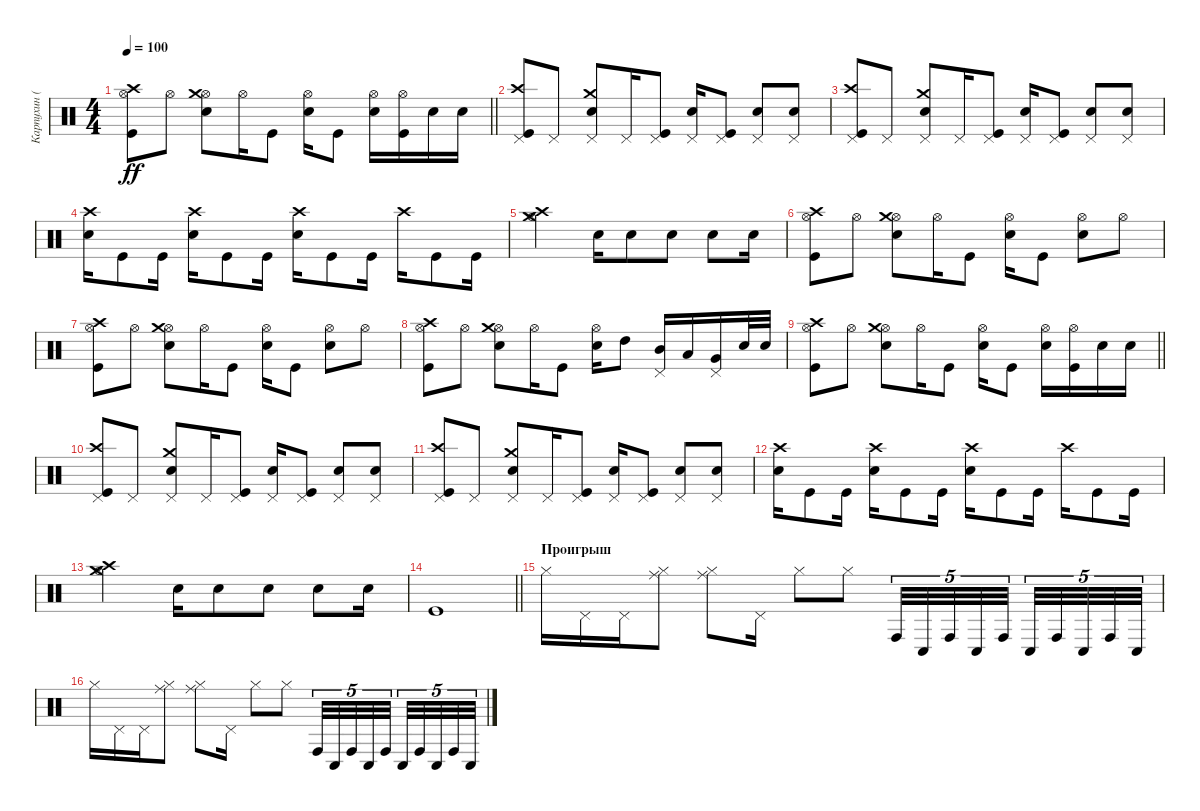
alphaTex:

\track ("Карпухин (ударные)" "Карпухин (") {instrument percussion}
\staff {score}
\articulation defaults
\ts (4 4)
\tempo 100
\clef neutral
\barLineRight lightlight
\ks c
("Hi-Hat (open)" "Kick (hit)" "Crash high (hit)").8{dy ff} "Hi-Hat (open)".8 ("Hi-Hat (open)" "Snare (hit) 2" "Crash medium (hit)").8 "Hi-Hat (open)".16 "Kick (hit)".8 ("Hi-Hat (open)" "Snare (hit) 2").16 "Kick (hit)".8 ("Hi-Hat (open)" "Snare (hit) 2").16 ("Hi-Hat (open)" "Kick (hit)").16 "Snare (hit) 2".16 "Snare (hit) 2".16 |
("Pedal Hi-Hat (hit)" "Kick (hit)" "Crash high (hit)").8 "Pedal Hi-Hat (hit)".8 ("Pedal Hi-Hat (hit)" "Snare (hit) 2" "Crash medium (hit)").8 "Pedal Hi-Hat (hit)".16 ("Pedal Hi-Hat (hit)" "Kick (hit)").8 ("Pedal Hi-Hat (hit)" "Snare (hit) 2").16 ("Pedal Hi-Hat (hit)" "Kick (hit)").8 ("Pedal Hi-Hat (hit)" "Snare (hit) 2").8 ("Pedal Hi-Hat (hit)" "Snare (hit) 2").8 |
("Pedal Hi-Hat (hit)" "Kick (hit)" "Crash high (hit)").8 "Pedal Hi-Hat (hit)".8 ("Pedal Hi-Hat (hit)" "Snare (hit) 2" "Crash medium (hit)").8 "Pedal Hi-Hat (hit)".16 ("Pedal Hi-Hat (hit)" "Kick (hit)").8 ("Pedal Hi-Hat (hit)" "Snare (hit) 2").16 ("Pedal Hi-Hat (hit)" "Kick (hit)").8 ("Pedal Hi-Hat (hit)" "Snare (hit) 2").8 ("Pedal Hi-Hat (hit)" "Snare (hit) 2").8 |
("Snare (hit) 2" "Crash high (hit)").16 "Kick (hit)".8 "Kick (hit)".16 ("Snare (hit) 2" "Crash high (hit)").16 "Kick (hit)".8 "Kick (hit)".16 ("Snare (hit) 2" "Crash high (hit)").16 "Kick (hit)".8 "Kick (hit)".16 "Crash high (hit)".16 "Kick (hit)".8 "Kick (hit)".16 |
("Crash high (hit)" "Crash medium (hit)" "Hi-Hat (open)").2 "Snare (hit) 2".16 "Snare (hit) 2".8 "Snare (hit) 2".8 "Snare (hit) 2".8 "Snare (hit) 2".16 |
("Hi-Hat (open)" "Kick (hit)" "Crash high (hit)").8 "Hi-Hat (open)".8 ("Hi-Hat (open)" "Snare (hit) 2" "Crash medium (hit)").8 "Hi-Hat (open)".16 "Kick (hit)".8 ("Hi-Hat (open)" "Snare (hit) 2").16 "Kick (hit)".8 ("Hi-Hat (open)" "Snare (hit) 2").8 "Hi-Hat (open)".8 |
("Hi-Hat (open)" "Kick (hit)" "Crash high (hit)").8 "Hi-Hat (open)".8 ("Hi-Hat (open)" "Snare (hit) 2" "Crash medium (hit)").8 "Hi-Hat (open)".16 "Kick (hit)".8 ("Hi-Hat (open)" "Snare (hit) 2").16 "Kick (hit)".8 ("Hi-Hat (open)" "Snare (hit) 2").8 "Hi-Hat (open)".8 |
("Hi-Hat (open)" "Kick (hit)" "Crash high (hit)").8 "Hi-Hat (open)".8 ("Hi-Hat (open)" "Snare (hit) 2" "Crash medium (hit)").8 "Hi-Hat (open)".16 "Kick (hit)".8 ("Hi-Hat (open)" "Snare (hit) 2").16 "High Tom (hit)".8 ("Pedal Hi-Hat (hit)" "Mid Tom (hit)").16 "Low Tom (hit)".16 ("Pedal Hi-Hat (hit)" "Very Low Tom (hit)").16 "Electric Snare (hit)".32 "Snare (hit) 2".32 |
\barLineRight lightlight
("Hi-Hat (open)" "Kick (hit)" "Crash high (hit)").8 "Hi-Hat (open)".8 ("Hi-Hat (open)" "Snare (hit) 2" "Crash medium (hit)").8 "Hi-Hat (open)".16 "Kick (hit)".8 ("Hi-Hat (open)" "Snare (hit) 2").16 "Kick (hit)".8 ("Hi-Hat (open)" "Snare (hit) 2").16 ("Hi-Hat (open)" "Kick (hit)").16 "Snare (hit) 2".16 "Snare (hit) 2".16 |
("Pedal Hi-Hat (hit)" "Kick (hit)" "Crash high (hit)").8 "Pedal Hi-Hat (hit)".8 ("Pedal Hi-Hat (hit)" "Snare (hit) 2" "Crash medium (hit)").8 "Pedal Hi-Hat (hit)".16 ("Pedal Hi-Hat (hit)" "Kick (hit)").8 ("Pedal Hi-Hat (hit)" "Snare (hit) 2").16 ("Pedal Hi-Hat (hit)" "Kick (hit)").8 ("Pedal Hi-Hat (hit)" "Snare (hit) 2").8 ("Pedal Hi-Hat (hit)" "Snare (hit) 2").8 |
("Pedal Hi-Hat (hit)" "Kick (hit)" "Crash high (hit)").8 "Pedal Hi-Hat (hit)".8 ("Pedal Hi-Hat (hit)" "Snare (hit) 2" "Crash medium (hit)").8 "Pedal Hi-Hat (hit)".16 ("Pedal Hi-Hat (hit)" "Kick (hit)").8 ("Pedal Hi-Hat (hit)" "Snare (hit) 2").16 ("Pedal Hi-Hat (hit)" "Kick (hit)").8 ("Pedal Hi-Hat (hit)" "Snare (hit) 2").8 ("Pedal Hi-Hat (hit)" "Snare (hit) 2").8 |
("Snare (hit) 2" "Crash high (hit)").16 "Kick (hit)".8 "Kick (hit)".16 ("Snare (hit) 2" "Crash high (hit)").16 "Kick (hit)".8 "Kick (hit)".16 ("Snare (hit) 2" "Crash high (hit)").16 "Kick (hit)".8 "Kick (hit)".16 "Crash high (hit)".16 "Kick (hit)".8 "Kick (hit)".16 |
("Crash high (hit)" "Crash medium (hit)" "Hi-Hat (open)").2 "Snare (hit) 2".16 "Snare (hit) 2".8 "Snare (hit) 2".8 "Snare (hit) 2".8 "Snare (hit) 2".16 |
\barLineRight lightlight "Kick (hit)".1
|
\section ("" "Проигрыш")
"Hi-Hat (closed)".16 "Pedal Hi-Hat (hit)".16 "Pedal Hi-Hat (hit)".16 ("Hi-Hat (closed)" "Ride (middle)").8 ("Hi-Hat (closed)" "Ride (middle)").8 "Pedal Hi-Hat (hit)".16 "Hi-Hat (closed)".8 "Hi-Hat (closed)".8 "Conga high (hit)".32{tu (5 4)} "Conga low (hit)".32{tu (5 4)} "Conga high (hit)".32{tu (5 4)} "Conga low (hit)".32{tu (5 4)} "Conga high (hit)".32{tu (5 4) beam splitsecondary} "Conga low (hit)".32{tu (5 4)} "Conga high (hit)".32{tu (5 4)} "Conga low (hit)".32{tu (5 4)} "Conga high (hit)".32{tu (5 4)} "Conga low (hit)".32{tu (5 4)} |
"Hi-Hat (closed)".16 "Pedal Hi-Hat (hit)".16 "Pedal Hi-Hat (hit)".16 ("Hi-Hat (closed)" "Ride (middle)").8 ("Hi-Hat (closed)" "Ride (middle)").8 "Pedal Hi-Hat (hit)".16 "Hi-Hat (closed)".8 "Hi-Hat (closed)".8 "Conga high (hit)".32{tu (5 4)} "Conga low (hit)".32{tu (5 4)} "Conga high (hit)".32{tu (5 4)} "Conga low (hit)".32{tu (5 4)} "Conga high (hit)".32{tu (5 4) beam splitsecondary} "Conga low (hit)".32{tu (5 4)} "Conga high (hit)".32{tu (5 4)} "Conga low (hit)".32{tu (5 4)} "Conga high (hit)".32{tu (5 4)} "Conga low (hit)".32{tu (5 4)}
